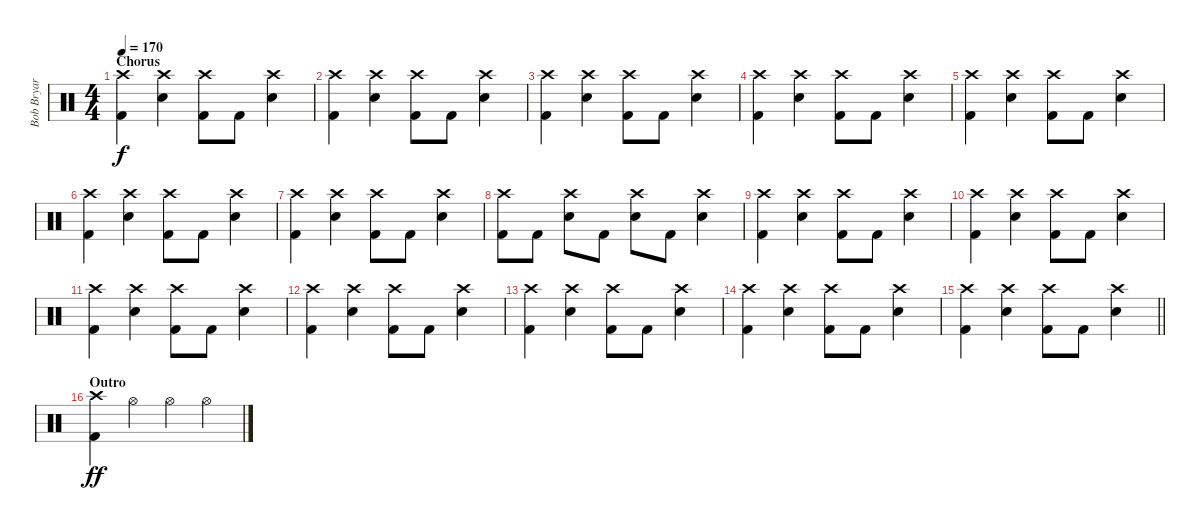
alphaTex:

\track ("Bob Bryar - Drums" "Bob Bryar ") {instrument percussion}
\staff {score}
\articulation defaults
\ts (4 4)
\section ("" "Chorus")
\tempo 170
\clef neutral
\ks c
("Crash high (hit)" "Kick (hit) 2").4{dy f} ("Snare (hit) 2" "Crash high (hit)").4 ("Kick (hit) 2" "Crash high (hit)").8 "Kick (hit) 2".8 ("Snare (hit) 2" "Crash high (hit)").4 |
("Crash high (hit)" "Kick (hit) 2").4 ("Snare (hit) 2" "Crash high (hit)").4 ("Kick (hit) 2" "Crash high (hit)").8 "Kick (hit) 2".8 ("Snare (hit) 2" "Crash high (hit)").4 |
("Crash high (hit)" "Kick (hit) 2").4 ("Snare (hit) 2" "Crash high (hit)").4 ("Kick (hit) 2" "Crash high (hit)").8 "Kick (hit) 2".8 ("Snare (hit) 2" "Crash high (hit)").4 |
("Crash high (hit)" "Kick (hit) 2").4 ("Snare (hit) 2" "Crash high (hit)").4 ("Kick (hit) 2" "Crash high (hit)").8 "Kick (hit) 2".8 ("Snare (hit) 2" "Crash high (hit)").4 |
("Crash high (hit)" "Kick (hit) 2").4 ("Snare (hit) 2" "Crash high (hit)").4 ("Kick (hit) 2" "Crash high (hit)").8 "Kick (hit) 2".8 ("Snare (hit) 2" "Crash high (hit)").4 |
("Crash high (hit)" "Kick (hit) 2").4 ("Snare (hit) 2" "Crash high (hit)").4 ("Kick (hit) 2" "Crash high (hit)").8 "Kick (hit) 2".8 ("Snare (hit) 2" "Crash high (hit)").4 |
("Crash high (hit)" "Kick (hit) 2").4 ("Snare (hit) 2" "Crash high (hit)").4 ("Kick (hit) 2" "Crash high (hit)").8 "Kick (hit) 2".8 ("Snare (hit) 2" "Crash high (hit)").4 |
("Kick (hit) 2" "Crash high (hit)").8 "Kick (hit) 2".8 ("Snare (hit) 2" "Crash high (hit)").8 "Kick (hit) 2".8 ("Snare (hit) 2" "Crash high (hit)").8 "Kick (hit) 2".8 ("Snare (hit) 2" "Crash high (hit)").4 |
("Crash high (hit)" "Kick (hit) 2").4 ("Snare (hit) 2" "Crash high (hit)").4 ("Kick (hit) 2" "Crash high (hit)").8 "Kick (hit) 2".8 ("Snare (hit) 2" "Crash high (hit)").4 |
("Crash high (hit)" "Kick (hit) 2").4 ("Snare (hit) 2" "Crash high (hit)").4 ("Kick (hit) 2" "Crash high (hit)").8 "Kick (hit) 2".8 ("Snare (hit) 2" "Crash high (hit)").4 |
("Crash high (hit)" "Kick (hit) 2").4 ("Snare (hit) 2" "Crash high (hit)").4 ("Kick (hit) 2" "Crash high (hit)").8 "Kick (hit) 2".8 ("Snare (hit) 2" "Crash high (hit)").4 |
("Crash high (hit)" "Kick (hit) 2").4 ("Snare (hit) 2" "Crash high (hit)").4 ("Kick (hit) 2" "Crash high (hit)").8 "Kick (hit) 2".8 ("Snare (hit) 2" "Crash high (hit)").4 |
("Crash high (hit)" "Kick (hit) 2").4 ("Snare (hit) 2" "Crash high (hit)").4 ("Kick (hit) 2" "Crash high (hit)").8 "Kick (hit) 2".8 ("Snare (hit) 2" "Crash high (hit)").4 |
("Crash high (hit)" "Kick (hit) 2").4 ("Snare (hit) 2" "Crash high (hit)").4 ("Kick (hit) 2" "Crash high (hit)").8 "Kick (hit) 2".8 ("Snare (hit) 2" "Crash high (hit)").4 |
\barLineRight lightlight
("Crash high (hit)" "Kick (hit) 2").4 ("Snare (hit) 2" "Crash high (hit)").4 ("Kick (hit) 2" "Crash high (hit)").8 "Kick (hit) 2".8 ("Snare (hit) 2" "Crash high (hit)").4 |
\section ("" "Outro")
("Crash high (hit)" "Kick (hit) 2").4{dy ff} "Hi-Hat (open)".4 "Hi-Hat (open)".4 "Hi-Hat (open)".4
